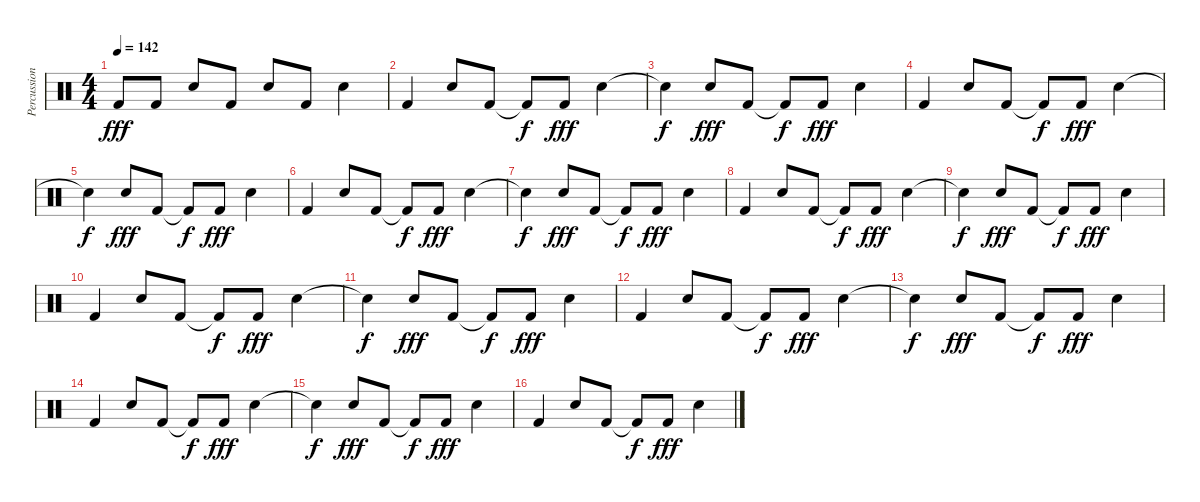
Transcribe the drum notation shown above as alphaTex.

\track ("Percussion" "Percussion") {instrument percussion}
\staff {score}
\articulation defaults
\ts (4 4)
\tempo 142
\clef neutral
\ks c "Kick (hit) 2".8{dy fff} "Kick (hit) 2".8 "Snare (hit) 2".8 "Kick (hit) 2".8 "Snare (hit) 2".8 "Kick (hit) 2".8 "Snare (hit) 2".4
|
"Kick (hit) 2".4 "Snare (hit) 2".8 "Kick (hit) 2".8 "Kick (hit) 2"{t}.8{dy f} "Kick (hit) 2".8{dy fff} "Snare (hit) 2".4 |
"Snare (hit) 2"{t}.4{dy f} "Snare (hit) 2".8{dy fff} "Kick (hit) 2".8 "Kick (hit) 2"{t}.8{dy f} "Kick (hit) 2".8{dy fff} "Snare (hit) 2".4 |
"Kick (hit) 2".4 "Snare (hit) 2".8 "Kick (hit) 2".8 "Kick (hit) 2"{t}.8{dy f} "Kick (hit) 2".8{dy fff} "Snare (hit) 2".4 |
"Snare (hit) 2"{t}.4{dy f} "Snare (hit) 2".8{dy fff} "Kick (hit) 2".8 "Kick (hit) 2"{t}.8{dy f} "Kick (hit) 2".8{dy fff} "Snare (hit) 2".4 |
"Kick (hit) 2".4 "Snare (hit) 2".8 "Kick (hit) 2".8 "Kick (hit) 2"{t}.8{dy f} "Kick (hit) 2".8{dy fff} "Snare (hit) 2".4 |
"Snare (hit) 2"{t}.4{dy f} "Snare (hit) 2".8{dy fff} "Kick (hit) 2".8 "Kick (hit) 2"{t}.8{dy f} "Kick (hit) 2".8{dy fff} "Snare (hit) 2".4 |
"Kick (hit) 2".4 "Snare (hit) 2".8 "Kick (hit) 2".8 "Kick (hit) 2"{t}.8{dy f} "Kick (hit) 2".8{dy fff} "Snare (hit) 2".4 |
"Snare (hit) 2"{t}.4{dy f} "Snare (hit) 2".8{dy fff} "Kick (hit) 2".8 "Kick (hit) 2"{t}.8{dy f} "Kick (hit) 2".8{dy fff} "Snare (hit) 2".4 |
"Kick (hit) 2".4 "Snare (hit) 2".8 "Kick (hit) 2".8 "Kick (hit) 2"{t}.8{dy f} "Kick (hit) 2".8{dy fff} "Snare (hit) 2".4 |
"Snare (hit) 2"{t}.4{dy f} "Snare (hit) 2".8{dy fff} "Kick (hit) 2".8 "Kick (hit) 2"{t}.8{dy f} "Kick (hit) 2".8{dy fff} "Snare (hit) 2".4 |
"Kick (hit) 2".4 "Snare (hit) 2".8 "Kick (hit) 2".8 "Kick (hit) 2"{t}.8{dy f} "Kick (hit) 2".8{dy fff} "Snare (hit) 2".4 |
"Snare (hit) 2"{t}.4{dy f} "Snare (hit) 2".8{dy fff} "Kick (hit) 2".8 "Kick (hit) 2"{t}.8{dy f} "Kick (hit) 2".8{dy fff} "Snare (hit) 2".4 |
"Kick (hit) 2".4 "Snare (hit) 2".8 "Kick (hit) 2".8 "Kick (hit) 2"{t}.8{dy f} "Kick (hit) 2".8{dy fff} "Snare (hit) 2".4 |
"Snare (hit) 2"{t}.4{dy f} "Snare (hit) 2".8{dy fff} "Kick (hit) 2".8 "Kick (hit) 2"{t}.8{dy f} "Kick (hit) 2".8{dy fff} "Snare (hit) 2".4 |
"Kick (hit) 2".4 "Snare (hit) 2".8 "Kick (hit) 2".8 "Kick (hit) 2"{t}.8{dy f} "Kick (hit) 2".8{dy fff} "Snare (hit) 2".4
